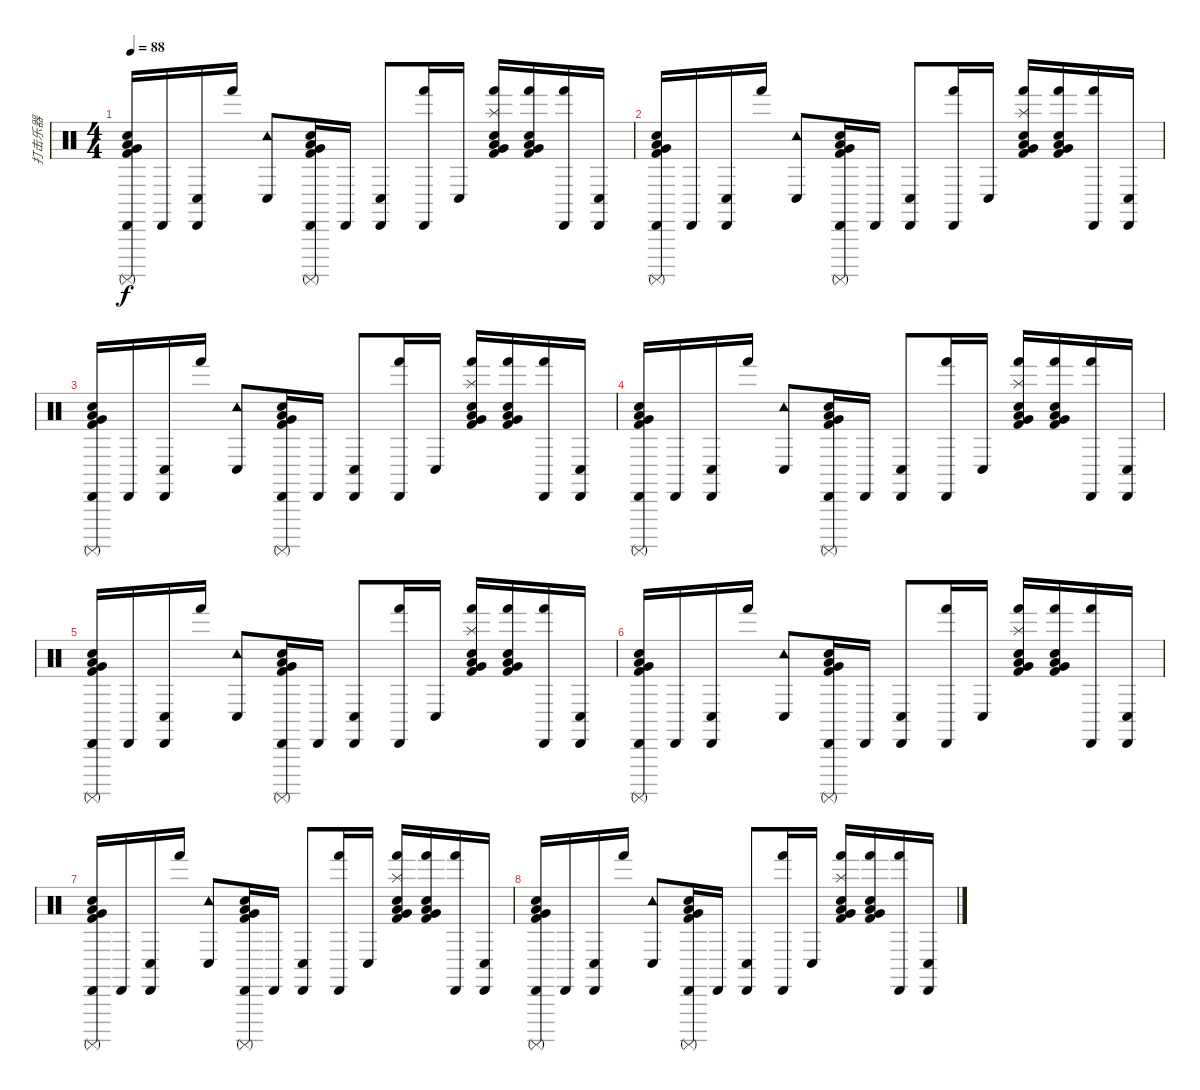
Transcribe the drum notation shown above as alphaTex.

\track ("打击乐器" "打击乐器") {instrument percussion}
\staff {score}
\articulation defaults
\ts (4 4)
\tempo 88
\clef neutral
\ks c
("Cabasa (hit)" "Surdo (mute)" "Electric Snare (hit)" "Very Low Tom (hit)" "Low Floor Tom (hit)" "Kick (hit) 2").16{bu 240 dy f} "Cabasa (hit)".16 ("Cabasa (hit)" "Conga low (hit)").16 "Hand (hit)".16 ("Tambourine (hit)" "Conga low (hit)").8 ("Cabasa (hit)" "Surdo (mute)" "Electric Snare (hit)" "Very Low Tom (hit)" "Low Floor Tom (hit)" "Kick (hit) 2").16{bu 240} "Cabasa (hit)".16 ("Cabasa (hit)" "Conga low (hit)").8 ("Cabasa (hit)" "Hand (hit)").16 "Conga low (hit)".16 ("Splash (hit)" "Hand (hit)" "Electric Snare (hit)" "Very Low Tom (hit)" "Low Floor Tom (hit)" "Kick (hit) 2").16{bu 60} ("Hand (hit)" "Electric Snare (hit)" "Very Low Tom (hit)" "Low Floor Tom (hit)" "Kick (hit) 2").16{bd 60} ("Cabasa (hit)" "Hand (hit)").16 ("Cabasa (hit)" "Conga low (hit)").16 |
("Cabasa (hit)" "Surdo (mute)" "Electric Snare (hit)" "Very Low Tom (hit)" "Low Floor Tom (hit)" "Kick (hit) 2").16{bu 240} "Cabasa (hit)".16 ("Cabasa (hit)" "Conga low (hit)").16 "Hand (hit)".16 ("Tambourine (hit)" "Conga low (hit)").8 ("Cabasa (hit)" "Surdo (mute)" "Electric Snare (hit)" "Very Low Tom (hit)" "Low Floor Tom (hit)" "Kick (hit) 2").16{bd 60} "Cabasa (hit)".16 ("Cabasa (hit)" "Conga low (hit)").8 ("Cabasa (hit)" "Hand (hit)").16 "Conga low (hit)".16 ("Splash (hit)" "Hand (hit)" "Electric Snare (hit)" "Very Low Tom (hit)" "Low Floor Tom (hit)" "Kick (hit) 2").16{bu 60} ("Hand (hit)" "Electric Snare (hit)" "Very Low Tom (hit)" "Low Floor Tom (hit)" "Kick (hit) 2").16{bd 60} ("Cabasa (hit)" "Hand (hit)").16 ("Cabasa (hit)" "Conga low (hit)").16 |
("Cabasa (hit)" "Surdo (mute)" "Electric Snare (hit)" "Very Low Tom (hit)" "Low Floor Tom (hit)" "Kick (hit) 2").16{bu 240} "Cabasa (hit)".16 ("Cabasa (hit)" "Conga low (hit)").16 "Hand (hit)".16 ("Tambourine (hit)" "Conga low (hit)").8 ("Cabasa (hit)" "Surdo (mute)" "Electric Snare (hit)" "Very Low Tom (hit)" "Low Floor Tom (hit)" "Kick (hit) 2").16{bu 240} "Cabasa (hit)".16 ("Cabasa (hit)" "Conga low (hit)").8 ("Cabasa (hit)" "Hand (hit)").16 "Conga low (hit)".16 ("Splash (hit)" "Hand (hit)" "Electric Snare (hit)" "Very Low Tom (hit)" "Low Floor Tom (hit)" "Kick (hit) 2").16{bu 60} ("Hand (hit)" "Electric Snare (hit)" "Very Low Tom (hit)" "Low Floor Tom (hit)" "Kick (hit) 2").16{bd 60} ("Cabasa (hit)" "Hand (hit)").16 ("Cabasa (hit)" "Conga low (hit)").16 |
("Cabasa (hit)" "Surdo (mute)" "Electric Snare (hit)" "Very Low Tom (hit)" "Low Floor Tom (hit)" "Kick (hit) 2").16{bu 240} "Cabasa (hit)".16 ("Cabasa (hit)" "Conga low (hit)").16 "Hand (hit)".16 ("Tambourine (hit)" "Conga low (hit)").8 ("Cabasa (hit)" "Surdo (mute)" "Electric Snare (hit)" "Very Low Tom (hit)" "Low Floor Tom (hit)" "Kick (hit) 2").16{bd 60} "Cabasa (hit)".16 ("Cabasa (hit)" "Conga low (hit)").8 ("Cabasa (hit)" "Hand (hit)").16 "Conga low (hit)".16 ("Splash (hit)" "Hand (hit)" "Electric Snare (hit)" "Very Low Tom (hit)" "Low Floor Tom (hit)" "Kick (hit) 2").16{bu 60} ("Hand (hit)" "Electric Snare (hit)" "Very Low Tom (hit)" "Low Floor Tom (hit)" "Kick (hit) 2").16{bd 60} ("Cabasa (hit)" "Hand (hit)").16 ("Cabasa (hit)" "Conga low (hit)").16 |
("Cabasa (hit)" "Surdo (mute)" "Electric Snare (hit)" "Very Low Tom (hit)" "Low Floor Tom (hit)" "Kick (hit) 2").16{bu 240} "Cabasa (hit)".16 ("Cabasa (hit)" "Conga low (hit)").16 "Hand (hit)".16 ("Tambourine (hit)" "Conga low (hit)").8 ("Cabasa (hit)" "Surdo (mute)" "Electric Snare (hit)" "Very Low Tom (hit)" "Low Floor Tom (hit)" "Kick (hit) 2").16{bu 240} "Cabasa (hit)".16 ("Cabasa (hit)" "Conga low (hit)").8 ("Cabasa (hit)" "Hand (hit)").16 "Conga low (hit)".16 ("Splash (hit)" "Hand (hit)" "Electric Snare (hit)" "Very Low Tom (hit)" "Low Floor Tom (hit)" "Kick (hit) 2").16{bu 60} ("Hand (hit)" "Electric Snare (hit)" "Very Low Tom (hit)" "Low Floor Tom (hit)" "Kick (hit) 2").16{bd 60} ("Cabasa (hit)" "Hand (hit)").16 ("Cabasa (hit)" "Conga low (hit)").16 |
("Cabasa (hit)" "Surdo (mute)" "Electric Snare (hit)" "Very Low Tom (hit)" "Low Floor Tom (hit)" "Kick (hit) 2").16{bu 240} "Cabasa (hit)".16 ("Cabasa (hit)" "Conga low (hit)").16 "Hand (hit)".16 ("Tambourine (hit)" "Conga low (hit)").8 ("Cabasa (hit)" "Surdo (mute)" "Electric Snare (hit)" "Very Low Tom (hit)" "Low Floor Tom (hit)" "Kick (hit) 2").16{bd 60} "Cabasa (hit)".16 ("Cabasa (hit)" "Conga low (hit)").8 ("Cabasa (hit)" "Hand (hit)").16 "Conga low (hit)".16 ("Splash (hit)" "Hand (hit)" "Electric Snare (hit)" "Very Low Tom (hit)" "Low Floor Tom (hit)" "Kick (hit) 2").16{bu 60} ("Hand (hit)" "Electric Snare (hit)" "Very Low Tom (hit)" "Low Floor Tom (hit)" "Kick (hit) 2").16{bd 60} ("Cabasa (hit)" "Hand (hit)").16 ("Cabasa (hit)" "Conga low (hit)").16 |
("Cabasa (hit)" "Surdo (mute)" "Electric Snare (hit)" "Very Low Tom (hit)" "Low Floor Tom (hit)" "Kick (hit) 2").16{bu 240} "Cabasa (hit)".16 ("Cabasa (hit)" "Conga low (hit)").16 "Hand (hit)".16 ("Tambourine (hit)" "Conga low (hit)").8 ("Cabasa (hit)" "Surdo (mute)" "Electric Snare (hit)" "Very Low Tom (hit)" "Low Floor Tom (hit)" "Kick (hit) 2").16{bu 240} "Cabasa (hit)".16 ("Cabasa (hit)" "Conga low (hit)").8 ("Cabasa (hit)" "Hand (hit)").16 "Conga low (hit)".16 ("Splash (hit)" "Hand (hit)" "Electric Snare (hit)" "Very Low Tom (hit)" "Low Floor Tom (hit)" "Kick (hit) 2").16{bu 60} ("Hand (hit)" "Electric Snare (hit)" "Very Low Tom (hit)" "Low Floor Tom (hit)" "Kick (hit) 2").16{bd 60} ("Cabasa (hit)" "Hand (hit)").16 ("Cabasa (hit)" "Conga low (hit)").16 |
("Cabasa (hit)" "Surdo (mute)" "Electric Snare (hit)" "Very Low Tom (hit)" "Low Floor Tom (hit)" "Kick (hit) 2").16{bu 240} "Cabasa (hit)".16 ("Cabasa (hit)" "Conga low (hit)").16 "Hand (hit)".16 ("Tambourine (hit)" "Conga low (hit)").8 ("Cabasa (hit)" "Surdo (mute)" "Electric Snare (hit)" "Very Low Tom (hit)" "Low Floor Tom (hit)" "Kick (hit) 2").16{bd 60} "Cabasa (hit)".16 ("Cabasa (hit)" "Conga low (hit)").8 ("Cabasa (hit)" "Hand (hit)").16 "Conga low (hit)".16 ("Splash (hit)" "Hand (hit)" "Electric Snare (hit)" "Very Low Tom (hit)" "Low Floor Tom (hit)" "Kick (hit) 2").16{bu 60} ("Hand (hit)" "Electric Snare (hit)" "Very Low Tom (hit)" "Low Floor Tom (hit)" "Kick (hit) 2").16{bd 60} ("Cabasa (hit)" "Hand (hit)").16 ("Cabasa (hit)" "Conga low (hit)").16
